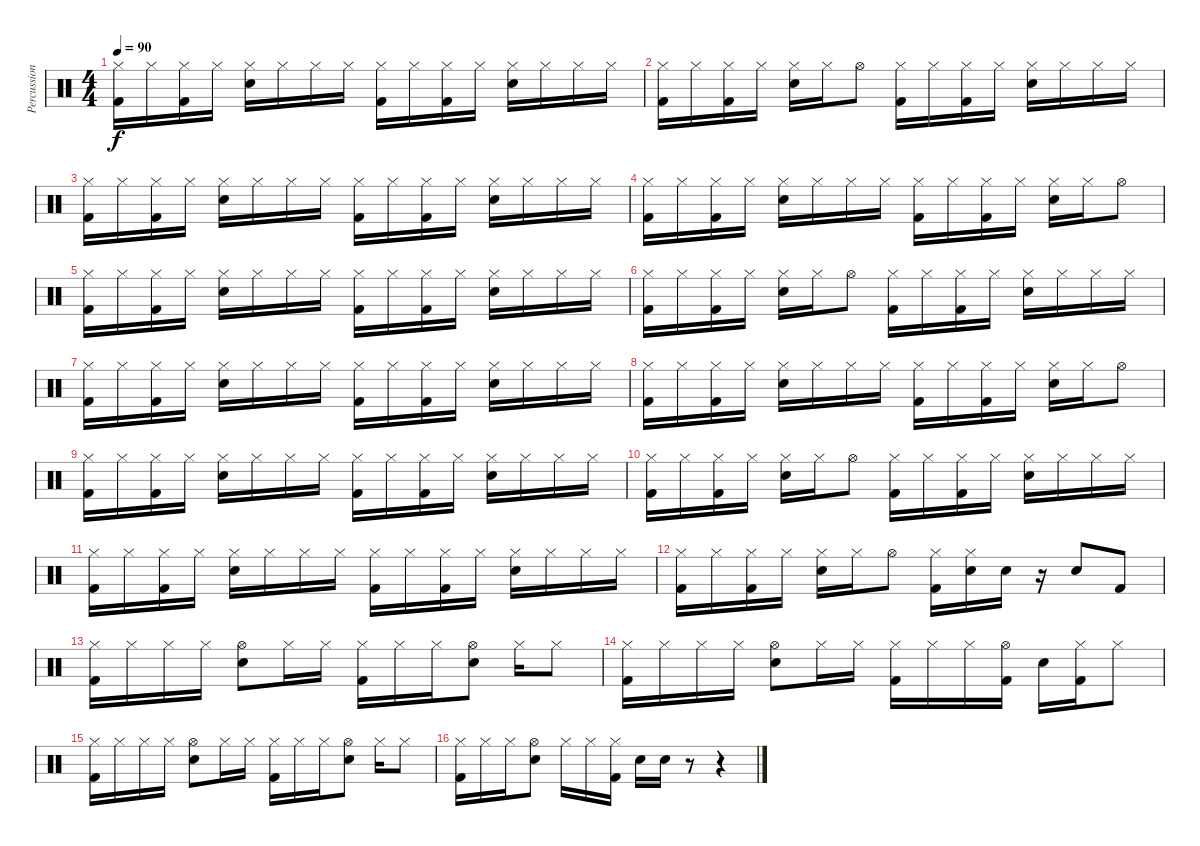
\track ("Percussion" "Percussion") {instrument percussion}
\staff {score}
\articulation defaults
\ts (4 4)
\tempo 90
\clef neutral
\ks c
("Hi-Hat (closed)" "Kick (hit) 2").16{dy f} "Hi-Hat (closed)".16 ("Hi-Hat (closed)" "Kick (hit) 2").16 "Hi-Hat (closed)".16 ("Hi-Hat (closed)" "Electric Snare (hit)").16 "Hi-Hat (closed)".16 "Hi-Hat (closed)".16 "Hi-Hat (closed)".16 ("Hi-Hat (closed)" "Kick (hit) 2").16 "Hi-Hat (closed)".16 ("Hi-Hat (closed)" "Kick (hit) 2").16 "Hi-Hat (closed)".16 ("Hi-Hat (closed)" "Electric Snare (hit)").16 "Hi-Hat (closed)".16 "Hi-Hat (closed)".16 "Hi-Hat (closed)".16 |
("Hi-Hat (closed)" "Kick (hit) 2").16 "Hi-Hat (closed)".16 ("Hi-Hat (closed)" "Kick (hit) 2").16 "Hi-Hat (closed)".16 ("Hi-Hat (closed)" "Electric Snare (hit)").16 "Hi-Hat (closed)".16 "Hi-Hat (open)".8 ("Hi-Hat (closed)" "Kick (hit) 2").16 "Hi-Hat (closed)".16 ("Hi-Hat (closed)" "Kick (hit) 2").16 "Hi-Hat (closed)".16 ("Hi-Hat (closed)" "Electric Snare (hit)").16 "Hi-Hat (closed)".16 "Hi-Hat (closed)".16 "Hi-Hat (closed)".16 |
("Hi-Hat (closed)" "Kick (hit) 2").16 "Hi-Hat (closed)".16 ("Hi-Hat (closed)" "Kick (hit) 2").16 "Hi-Hat (closed)".16 ("Hi-Hat (closed)" "Electric Snare (hit)").16 "Hi-Hat (closed)".16 "Hi-Hat (closed)".16 "Hi-Hat (closed)".16 ("Hi-Hat (closed)" "Kick (hit) 2").16 "Hi-Hat (closed)".16 ("Hi-Hat (closed)" "Kick (hit) 2").16 "Hi-Hat (closed)".16 ("Hi-Hat (closed)" "Electric Snare (hit)").16 "Hi-Hat (closed)".16 "Hi-Hat (closed)".16 "Hi-Hat (closed)".16 |
("Hi-Hat (closed)" "Kick (hit) 2").16 "Hi-Hat (closed)".16 ("Hi-Hat (closed)" "Kick (hit) 2").16 "Hi-Hat (closed)".16 ("Hi-Hat (closed)" "Electric Snare (hit)").16 "Hi-Hat (closed)".16 "Hi-Hat (closed)".16 "Hi-Hat (closed)".16 ("Hi-Hat (closed)" "Kick (hit) 2").16 "Hi-Hat (closed)".16 ("Hi-Hat (closed)" "Kick (hit) 2").16 "Hi-Hat (closed)".16 ("Hi-Hat (closed)" "Electric Snare (hit)").16 "Hi-Hat (closed)".16 "Hi-Hat (open)".8 |
("Hi-Hat (closed)" "Kick (hit) 2").16 "Hi-Hat (closed)".16 ("Hi-Hat (closed)" "Kick (hit) 2").16 "Hi-Hat (closed)".16 ("Hi-Hat (closed)" "Electric Snare (hit)").16 "Hi-Hat (closed)".16 "Hi-Hat (closed)".16 "Hi-Hat (closed)".16 ("Hi-Hat (closed)" "Kick (hit) 2").16 "Hi-Hat (closed)".16 ("Hi-Hat (closed)" "Kick (hit) 2").16 "Hi-Hat (closed)".16 ("Hi-Hat (closed)" "Electric Snare (hit)").16 "Hi-Hat (closed)".16 "Hi-Hat (closed)".16 "Hi-Hat (closed)".16 |
("Hi-Hat (closed)" "Kick (hit) 2").16 "Hi-Hat (closed)".16 ("Hi-Hat (closed)" "Kick (hit) 2").16 "Hi-Hat (closed)".16 ("Hi-Hat (closed)" "Electric Snare (hit)").16 "Hi-Hat (closed)".16 "Hi-Hat (open)".8 ("Hi-Hat (closed)" "Kick (hit) 2").16 "Hi-Hat (closed)".16 ("Hi-Hat (closed)" "Kick (hit) 2").16 "Hi-Hat (closed)".16 ("Hi-Hat (closed)" "Electric Snare (hit)").16 "Hi-Hat (closed)".16 "Hi-Hat (closed)".16 "Hi-Hat (closed)".16 |
("Hi-Hat (closed)" "Kick (hit) 2").16 "Hi-Hat (closed)".16 ("Hi-Hat (closed)" "Kick (hit) 2").16 "Hi-Hat (closed)".16 ("Hi-Hat (closed)" "Electric Snare (hit)").16 "Hi-Hat (closed)".16 "Hi-Hat (closed)".16 "Hi-Hat (closed)".16 ("Hi-Hat (closed)" "Kick (hit) 2").16 "Hi-Hat (closed)".16 ("Hi-Hat (closed)" "Kick (hit) 2").16 "Hi-Hat (closed)".16 ("Hi-Hat (closed)" "Electric Snare (hit)").16 "Hi-Hat (closed)".16 "Hi-Hat (closed)".16 "Hi-Hat (closed)".16 |
("Hi-Hat (closed)" "Kick (hit) 2").16 "Hi-Hat (closed)".16 ("Hi-Hat (closed)" "Kick (hit) 2").16 "Hi-Hat (closed)".16 ("Hi-Hat (closed)" "Electric Snare (hit)").16 "Hi-Hat (closed)".16 "Hi-Hat (closed)".16 "Hi-Hat (closed)".16 ("Hi-Hat (closed)" "Kick (hit) 2").16 "Hi-Hat (closed)".16 ("Hi-Hat (closed)" "Kick (hit) 2").16 "Hi-Hat (closed)".16 ("Hi-Hat (closed)" "Electric Snare (hit)").16 "Hi-Hat (closed)".16 "Hi-Hat (open)".8 |
("Hi-Hat (closed)" "Kick (hit) 2").16 "Hi-Hat (closed)".16 ("Hi-Hat (closed)" "Kick (hit) 2").16 "Hi-Hat (closed)".16 ("Hi-Hat (closed)" "Electric Snare (hit)").16 "Hi-Hat (closed)".16 "Hi-Hat (closed)".16 "Hi-Hat (closed)".16 ("Hi-Hat (closed)" "Kick (hit) 2").16 "Hi-Hat (closed)".16 ("Hi-Hat (closed)" "Kick (hit) 2").16 "Hi-Hat (closed)".16 ("Hi-Hat (closed)" "Electric Snare (hit)").16 "Hi-Hat (closed)".16 "Hi-Hat (closed)".16 "Hi-Hat (closed)".16 |
("Hi-Hat (closed)" "Kick (hit) 2").16 "Hi-Hat (closed)".16 ("Hi-Hat (closed)" "Kick (hit) 2").16 "Hi-Hat (closed)".16 ("Hi-Hat (closed)" "Electric Snare (hit)").16 "Hi-Hat (closed)".16 "Hi-Hat (open)".8 ("Hi-Hat (closed)" "Kick (hit) 2").16 "Hi-Hat (closed)".16 ("Hi-Hat (closed)" "Kick (hit) 2").16 "Hi-Hat (closed)".16 ("Hi-Hat (closed)" "Electric Snare (hit)").16 "Hi-Hat (closed)".16 "Hi-Hat (closed)".16 "Hi-Hat (closed)".16 |
("Hi-Hat (closed)" "Kick (hit) 2").16 "Hi-Hat (closed)".16 ("Hi-Hat (closed)" "Kick (hit) 2").16 "Hi-Hat (closed)".16 ("Hi-Hat (closed)" "Electric Snare (hit)").16 "Hi-Hat (closed)".16 "Hi-Hat (closed)".16 "Hi-Hat (closed)".16 ("Hi-Hat (closed)" "Kick (hit) 2").16 "Hi-Hat (closed)".16 ("Hi-Hat (closed)" "Kick (hit) 2").16 "Hi-Hat (closed)".16 ("Hi-Hat (closed)" "Electric Snare (hit)").16 "Hi-Hat (closed)".16 "Hi-Hat (closed)".16 "Hi-Hat (closed)".16 |
("Hi-Hat (closed)" "Kick (hit) 2").16 "Hi-Hat (closed)".16 ("Hi-Hat (closed)" "Kick (hit) 2").16 "Hi-Hat (closed)".16 ("Hi-Hat (closed)" "Electric Snare (hit)").16 "Hi-Hat (closed)".16 "Hi-Hat (open)".8 ("Hi-Hat (closed)" "Kick (hit) 2").16 ("Hi-Hat (closed)" "Electric Snare (hit)").16 "Electric Snare (hit)".16 r.16 "Electric Snare (hit)".8 "Kick (hit) 2".8 |
("Hi-Hat (closed)" "Kick (hit) 2").16 "Hi-Hat (closed)".16 "Hi-Hat (closed)".16 "Hi-Hat (closed)".16 ("Hi-Hat (open)" "Electric Snare (hit)").8 "Hi-Hat (closed)".16 "Hi-Hat (closed)".16 ("Hi-Hat (closed)" "Kick (hit) 2").16 "Hi-Hat (closed)".16 "Hi-Hat (closed)".16 ("Hi-Hat (open)" "Electric Snare (hit)").8 "Hi-Hat (closed)".16 "Hi-Hat (closed)".8 |
("Hi-Hat (closed)" "Kick (hit) 2").16 "Hi-Hat (closed)".16 "Hi-Hat (closed)".16 "Hi-Hat (closed)".16 ("Hi-Hat (open)" "Electric Snare (hit)").8 "Hi-Hat (closed)".16 "Hi-Hat (closed)".16 ("Hi-Hat (closed)" "Kick (hit) 2").16 "Hi-Hat (closed)".16 "Hi-Hat (closed)".16 ("Hi-Hat (open)" "Kick (hit) 2").16 "Electric Snare (hit)".16 ("Hi-Hat (closed)" "Kick (hit) 2").16 "Hi-Hat (closed)".8 |
("Hi-Hat (closed)" "Kick (hit) 2").16 "Hi-Hat (closed)".16 "Hi-Hat (closed)".16 "Hi-Hat (closed)".16 ("Hi-Hat (open)" "Electric Snare (hit)").8 "Hi-Hat (closed)".16 "Hi-Hat (closed)".16 ("Hi-Hat (closed)" "Kick (hit) 2").16 "Hi-Hat (closed)".16 "Hi-Hat (closed)".16 ("Hi-Hat (open)" "Electric Snare (hit)").8 "Hi-Hat (closed)".16 "Hi-Hat (closed)".8 |
("Hi-Hat (closed)" "Kick (hit) 2").16 "Hi-Hat (closed)".16 "Hi-Hat (closed)".16 ("Hi-Hat (open)" "Electric Snare (hit)").8 "Hi-Hat (closed)".16 "Hi-Hat (closed)".16 ("Hi-Hat (closed)" "Kick (hit) 2").16 "Electric Snare (hit)".16 "Electric Snare (hit)".16 r.8 r.4
